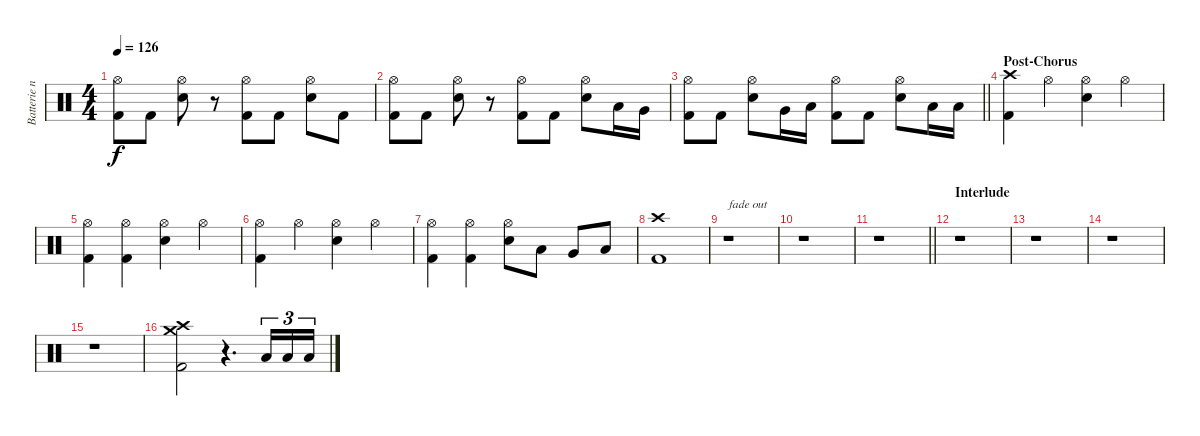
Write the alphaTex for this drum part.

\track ("Batterie n°3" "Batterie n") {instrument percussion}
\staff {score}
\articulation defaults
\ts (4 4)
\tempo 126
\clef neutral
\ks c
("Hi-Hat (open)" "Kick (hit) 2").8{dy f} "Kick (hit) 2".8 ("Hi-Hat (open)" "Snare (hit) 2").8 r.8 ("Hi-Hat (open)" "Kick (hit) 2").8 "Kick (hit) 2".8 ("Hi-Hat (open)" "Snare (hit) 2").8 "Kick (hit) 2".8 |
("Hi-Hat (open)" "Kick (hit) 2").8 "Kick (hit) 2".8 ("Hi-Hat (open)" "Snare (hit) 2").8 r.8 ("Hi-Hat (open)" "Kick (hit) 2").8 "Kick (hit) 2".8 ("Hi-Hat (open)" "Snare (hit) 2").8 "Low Tom (hit)".16 "Very Low Tom (hit)".16 |
\barLineRight lightlight
("Hi-Hat (open)" "Kick (hit) 2").8 "Kick (hit) 2".8 ("Hi-Hat (open)" "Snare (hit) 2").8 "Very Low Tom (hit)".16 "Low Floor Tom (hit)".16 ("Hi-Hat (open)" "Kick (hit) 2").8 "Kick (hit) 2".8 ("Hi-Hat (open)" "Snare (hit) 2").8 "Low Floor Tom (hit)".16 "Low Floor Tom (hit)".16 |
\section ("" "Post-Chorus")
("Crash high (hit)" "Kick (hit) 2").4 "Hi-Hat (open)".4 ("Hi-Hat (open)" "Snare (hit) 2").4 "Hi-Hat (open)".4 |
("Hi-Hat (open)" "Kick (hit) 2").4 ("Hi-Hat (open)" "Kick (hit) 2").4 ("Hi-Hat (open)" "Snare (hit) 2").4 "Hi-Hat (open)".4 |
("Hi-Hat (open)" "Kick (hit) 2").4 "Hi-Hat (open)".4 ("Hi-Hat (open)" "Snare (hit) 2").4 "Hi-Hat (open)".4 |
("Hi-Hat (open)" "Kick (hit) 2").4 ("Hi-Hat (open)" "Kick (hit) 2").4 ("Hi-Hat (open)" "Snare (hit) 2").8 "Low Tom (hit)".8 "Very Low Tom (hit)".8 "Low Floor Tom (hit)".8 |
("Crash high (hit)" "Kick (hit) 2").1 |
r.1{txt "fade out"} |
r.1 |
\barLineRight lightlight
r.1 |
\section ("" "Interlude")
r.1 |
r.1 |
r.1 |
r.1 |
("Crash high (hit)" "Crash medium (hit)" "Kick (hit) 2").2{volume 12} r.4{d} "Low Floor Tom (hit)".16{tu (3 2)} "Low Floor Tom (hit)".16{tu (3 2)} "Low Floor Tom (hit)".16{tu (3 2)}
